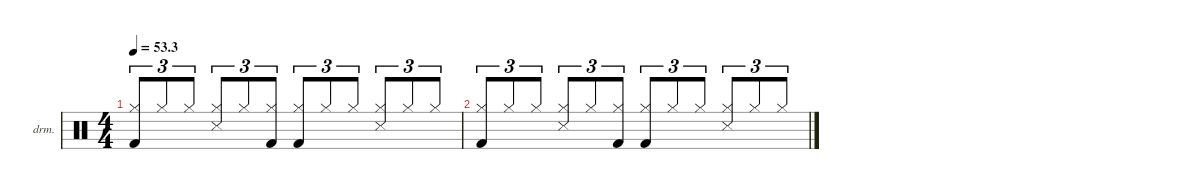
\defaultSystemsLayout 4
\hideDynamics
\bracketExtendMode nobrackets
\firstSystemTrackNameOrientation horizontal
\otherSystemsTrackNameOrientation horizontal
\track ("Drumkit" "drm.") {defaultSystemsLayout 4 instrument percussion}
\staff {score}
\articulation defaults
\ts (4 4)
\tempo
53.3
\accidentals auto
\clef neutral
\ottava regular
\simile none
\ks c
("Hi-Hat (closed)" "Kick (hit) 2").8{tu (3 2) dy mf beam Up} "Hi-Hat (closed)".8{tu (3 2) beam Up} "Hi-Hat (closed)".8{tu (3 2) beam Up} ("Hi-Hat (closed)" "Snare (side stick) 3").8{tu (3 2) beam Up} "Hi-Hat (closed)".8{tu (3 2) beam Up} ("Hi-Hat (closed)" "Kick (hit) 2").8{tu (3 2) beam Up} ("Hi-Hat (closed)" "Kick (hit) 2").8{tu (3 2) beam Up} "Hi-Hat (closed)".8{tu (3 2) beam Up} "Hi-Hat (closed)".8{tu (3 2) beam Up} ("Hi-Hat (closed)" "Snare (side stick) 3").8{tu (3 2) beam Up} "Hi-Hat (closed)".8{tu (3 2) beam Up} "Hi-Hat (closed)".8{tu (3 2) beam Up} |
("Hi-Hat (closed)" "Kick (hit) 2").8{tu (3 2) beam Up} "Hi-Hat (closed)".8{tu (3 2) beam Up} "Hi-Hat (closed)".8{tu (3 2) beam Up} ("Hi-Hat (closed)" "Snare (side stick) 3").8{tu (3 2) beam Up} "Hi-Hat (closed)".8{tu (3 2) beam Up} ("Hi-Hat (closed)" "Kick (hit) 2").8{tu (3 2) beam Up} ("Hi-Hat (closed)" "Kick (hit) 2").8{tu (3 2) beam Up} "Hi-Hat (closed)".8{tu (3 2) beam Up} "Hi-Hat (closed)".8{tu (3 2) beam Up} ("Hi-Hat (closed)" "Snare (side stick) 3").8{tu (3 2) beam Up} "Hi-Hat (closed)".8{tu (3 2) beam Up} "Hi-Hat (closed)".8{tu (3 2) beam Up}
